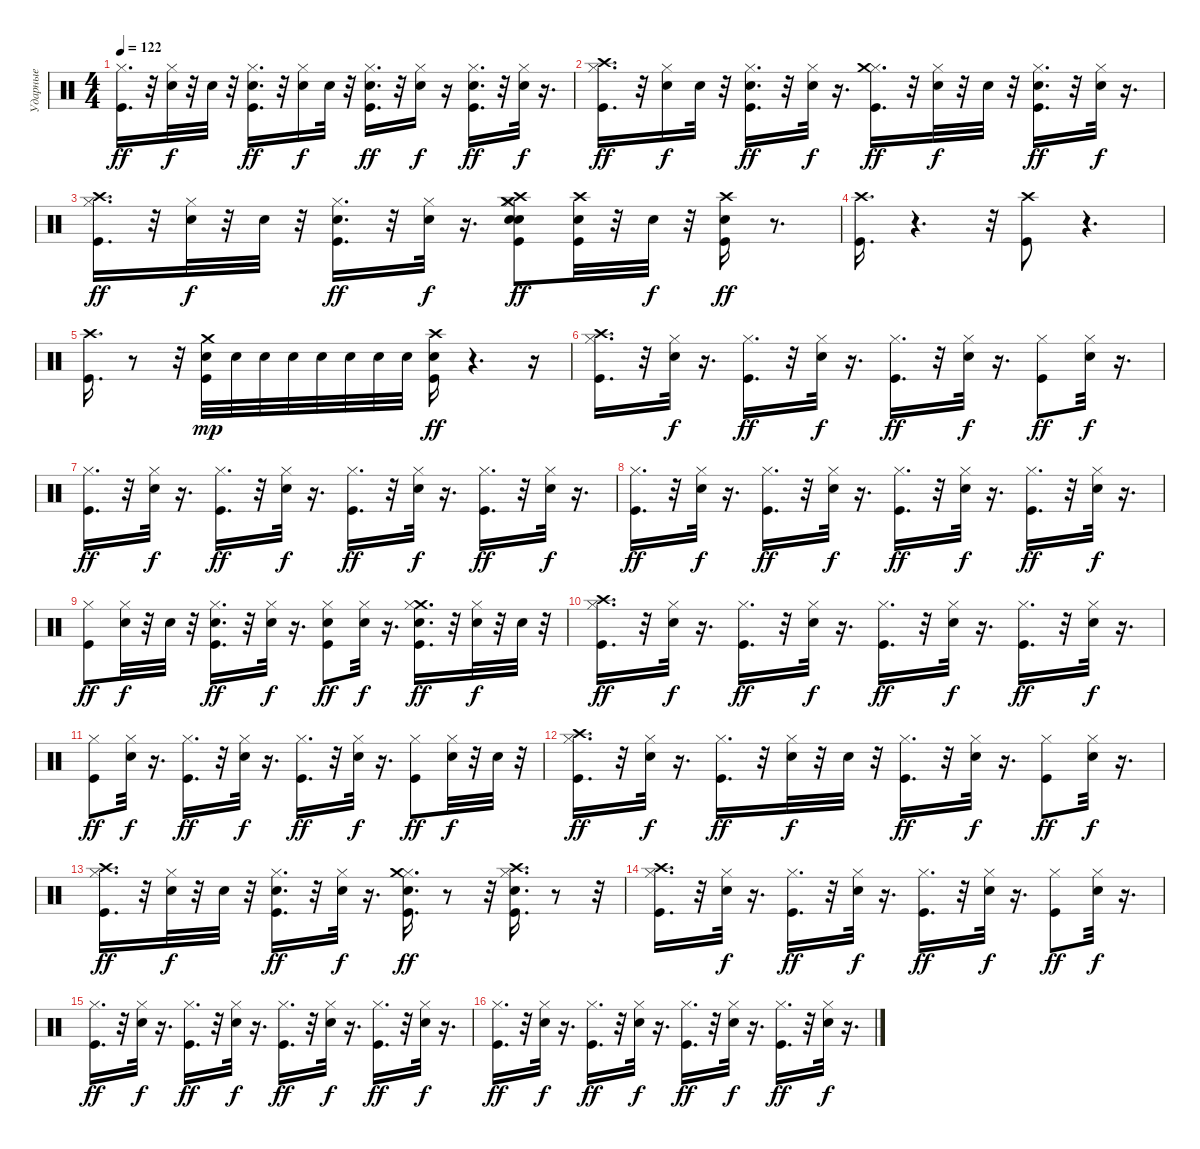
\track ("Ударные" "Ударные") {instrument percussion}
\staff {score}
\articulation defaults
\ts (4 4)
\tempo 122
\clef neutral
\ks c
("Hi-Hat (closed)" "Kick (hit)").16{d dy ff} r.32 ("Electric Snare (hit)" "Hi-Hat (closed)").32{dy f} r.32 "Electric Snare (hit)".32 r.32 ("Kick (hit)" "Hi-Hat (closed)" "Electric Snare (hit)").16{d dy ff} r.32 ("Hi-Hat (closed)" "Electric Snare (hit)").16{dy f} "Electric Snare (hit)".32 r.32 ("Electric Snare (hit)" "Hi-Hat (closed)" "Kick (hit)").16{d dy ff} r.32 ("Hi-Hat (closed)" "Electric Snare (hit)").16{dy f} r.16 ("Hi-Hat (closed)" "Kick (hit)" "Electric Snare (hit)").16{d dy ff} r.32 ("Hi-Hat (closed)" "Electric Snare (hit)").32{dy f} r.16{d} |
("Hi-Hat (closed)" "Kick (hit)" "Crash high (hit)").16{d dy ff} r.32 ("Electric Snare (hit)" "Hi-Hat (closed)").16{dy f} "Electric Snare (hit)".32 r.32 ("Electric Snare (hit)" "Kick (hit)" "Hi-Hat (closed)").16{d dy ff} r.32 ("Hi-Hat (closed)" "Electric Snare (hit)").32{dy f} r.16{d} ("Kick (hit)" "Hi-Hat (closed)" "Crash medium (hit)").16{d dy ff} r.32 ("Hi-Hat (closed)" "Electric Snare (hit)").32{dy f} r.32 "Electric Snare (hit)".32 r.32 ("Electric Snare (hit)" "Hi-Hat (closed)" "Kick (hit)").16{d dy ff} r.32 ("Hi-Hat (closed)" "Electric Snare (hit)").32{dy f} r.16{d} |
("Crash high (hit)" "Kick (hit)" "Hi-Hat (closed)").16{d dy ff} r.32 ("Electric Snare (hit)" "Hi-Hat (closed)").32{dy f} r.32 "Electric Snare (hit)".32 r.32 ("Electric Snare (hit)" "Kick (hit)" "Hi-Hat (closed)").16{d dy ff} r.32 ("Hi-Hat (closed)" "Electric Snare (hit)").32{dy f} r.16{d} ("Crash medium (hit)" "Kick (hit)" "Hi-Hat (closed)" "Electric Snare (hit)" "Electric Snare (hit)" "Crash high (hit)").8{dy ff} ("Crash high (hit)" "Kick (hit)" "Electric Snare (hit)").32 r.32 "Electric Snare (hit)".32{dy f} r.32 ("Electric Snare (hit)" "Crash high (hit)" "Kick (hit)").16{dy ff} r.8{d} |
("Crash high (hit)" "Kick (hit)").16{d} r.4{d} r.32 ("Kick (hit)" "Crash high (hit)").8 r.4{d} |
("Crash high (hit)" "Kick (hit)").16{d} r.8 r.32 ("Crash medium (hit)" "Kick (hit)" "Electric Snare (hit)").32{dy mp} "Electric Snare (hit)".32 "Electric Snare (hit)".32 "Electric Snare (hit)".32 "Electric Snare (hit)".32 "Electric Snare (hit)".32 "Electric Snare (hit)".32 "Electric Snare (hit)".32 ("Electric Snare (hit)" "Crash high (hit)" "Kick (hit)").16{dy ff} r.4{d} r.16 |
("Kick (hit)" "Hi-Hat (closed)" "Crash high (hit)").16{d} r.32 ("Electric Snare (hit)" "Hi-Hat (closed)").32{dy f} r.16{d} ("Hi-Hat (closed)" "Kick (hit)").16{d dy ff} r.32 ("Electric Snare (hit)" "Hi-Hat (closed)").32{dy f} r.16{d} ("Hi-Hat (closed)" "Kick (hit)").16{d dy ff} r.32 ("Electric Snare (hit)" "Hi-Hat (closed)").32{dy f} r.16{d} ("Hi-Hat (closed)" "Kick (hit)").8{dy ff} ("Hi-Hat (closed)" "Electric Snare (hit)").32{dy f} r.16{d} |
("Kick (hit)" "Hi-Hat (closed)").16{d dy ff} r.32 ("Hi-Hat (closed)" "Electric Snare (hit)").32{dy f} r.16{d} ("Kick (hit)" "Hi-Hat (closed)").16{d dy ff} r.32 ("Hi-Hat (closed)" "Electric Snare (hit)").32{dy f} r.16{d} ("Hi-Hat (closed)" "Kick (hit)").16{d dy ff} r.32 ("Hi-Hat (closed)" "Electric Snare (hit)").32{dy f} r.16{d} ("Hi-Hat (closed)" "Kick (hit)").16{d dy ff} r.32 ("Hi-Hat (closed)" "Electric Snare (hit)").32{dy f} r.16{d} |
("Hi-Hat (closed)" "Kick (hit)").16{d dy ff} r.32 ("Hi-Hat (closed)" "Electric Snare (hit)").32{dy f} r.16{d} ("Hi-Hat (closed)" "Kick (hit)").16{d dy ff} r.32 ("Hi-Hat (closed)" "Electric Snare (hit)").32{dy f} r.16{d} ("Kick (hit)" "Hi-Hat (closed)").16{d dy ff} r.32 ("Hi-Hat (closed)" "Electric Snare (hit)").32{dy f} r.16{d} ("Hi-Hat (closed)" "Kick (hit)").16{d dy ff} r.32 ("Hi-Hat (closed)" "Electric Snare (hit)").32{dy f} r.16{d} |
("Kick (hit)" "Hi-Hat (closed)").8{dy ff} ("Electric Snare (hit)" "Hi-Hat (closed)").32{dy f} r.32 "Electric Snare (hit)".32 r.32 ("Electric Snare (hit)" "Kick (hit)" "Hi-Hat (closed)").16{d dy ff} r.32 ("Electric Snare (hit)" "Hi-Hat (closed)").32{dy f} r.16{d} ("Electric Snare (hit)" "Kick (hit)" "Hi-Hat (closed)").8{dy ff} ("Electric Snare (hit)" "Hi-Hat (closed)").32{dy f} r.16{d} ("Electric Snare (hit)" "Crash medium (hit)" "Kick (hit)" "Hi-Hat (closed)").16{d dy ff} r.32 ("Hi-Hat (closed)" "Electric Snare (hit)").32{dy f} r.32 "Electric Snare (hit)".32 r.32 |
("Crash high (hit)" "Kick (hit)" "Hi-Hat (closed)").16{d dy ff} r.32 ("Hi-Hat (closed)" "Electric Snare (hit)").32{dy f} r.16{d} ("Hi-Hat (closed)" "Kick (hit)").16{d dy ff} r.32 ("Electric Snare (hit)" "Hi-Hat (closed)").32{dy f} r.16{d} ("Kick (hit)" "Hi-Hat (closed)").16{d dy ff} r.32 ("Electric Snare (hit)" "Hi-Hat (closed)").32{dy f} r.16{d} ("Hi-Hat (closed)" "Kick (hit)").16{d dy ff} r.32 ("Hi-Hat (closed)" "Electric Snare (hit)").32{dy f} r.16{d} |
("Hi-Hat (closed)" "Kick (hit)").8{dy ff} ("Hi-Hat (closed)" "Electric Snare (hit)").32{dy f} r.16{d} ("Hi-Hat (closed)" "Kick (hit)").16{d dy ff} r.32 ("Hi-Hat (closed)" "Electric Snare (hit)").32{dy f} r.16{d} ("Kick (hit)" "Hi-Hat (closed)").16{d dy ff} r.32 ("Hi-Hat (closed)" "Electric Snare (hit)").32{dy f} r.16{d} ("Hi-Hat (closed)" "Kick (hit)").8{dy ff} ("Electric Snare (hit)" "Hi-Hat (closed)").32{dy f} r.32 "Electric Snare (hit)".32 r.32 |
("Crash high (hit)" "Kick (hit)" "Hi-Hat (closed)").16{d dy ff} r.32 ("Hi-Hat (closed)" "Electric Snare (hit)").32{dy f} r.16{d} ("Kick (hit)" "Hi-Hat (closed)").16{d dy ff} r.32 ("Hi-Hat (closed)" "Electric Snare (hit)").32{dy f} r.32 "Electric Snare (hit)".32 r.32 ("Kick (hit)" "Hi-Hat (closed)").16{d dy ff} r.32 ("Hi-Hat (closed)" "Electric Snare (hit)").32{dy f} r.16{d} ("Kick (hit)" "Hi-Hat (closed)").8{dy ff} ("Electric Snare (hit)" "Hi-Hat (closed)").32{dy f} r.16{d} |
("Kick (hit)" "Hi-Hat (closed)" "Crash high (hit)").16{d dy ff} r.32 ("Electric Snare (hit)" "Hi-Hat (closed)").32{dy f} r.32 "Electric Snare (hit)".32 r.32 ("Electric Snare (hit)" "Kick (hit)" "Hi-Hat (closed)").16{d dy ff} r.32 ("Electric Snare (hit)" "Hi-Hat (closed)").32{dy f} r.16{d} ("Electric Snare (hit)" "Kick (hit)" "Hi-Hat (closed)" "Crash medium (hit)").16{d dy ff} r.8 r.32 ("Hi-Hat (closed)" "Kick (hit)" "Crash high (hit)" "Electric Snare (hit)").16{d} r.8 r.32 |
("Kick (hit)" "Hi-Hat (closed)" "Crash high (hit)").16{d} r.32 ("Electric Snare (hit)" "Hi-Hat (closed)").32{dy f} r.16{d} ("Hi-Hat (closed)" "Kick (hit)").16{d dy ff} r.32 ("Electric Snare (hit)" "Hi-Hat (closed)").32{dy f} r.16{d} ("Hi-Hat (closed)" "Kick (hit)").16{d dy ff} r.32 ("Electric Snare (hit)" "Hi-Hat (closed)").32{dy f} r.16{d} ("Hi-Hat (closed)" "Kick (hit)").8{dy ff} ("Hi-Hat (closed)" "Electric Snare (hit)").32{dy f} r.16{d} |
("Kick (hit)" "Hi-Hat (closed)").16{d dy ff} r.32 ("Hi-Hat (closed)" "Electric Snare (hit)").32{dy f} r.16{d} ("Kick (hit)" "Hi-Hat (closed)").16{d dy ff} r.32 ("Hi-Hat (closed)" "Electric Snare (hit)").32{dy f} r.16{d} ("Hi-Hat (closed)" "Kick (hit)").16{d dy ff} r.32 ("Hi-Hat (closed)" "Electric Snare (hit)").32{dy f} r.16{d} ("Hi-Hat (closed)" "Kick (hit)").16{d dy ff} r.32 ("Hi-Hat (closed)" "Electric Snare (hit)").32{dy f} r.16{d} |
("Hi-Hat (closed)" "Kick (hit)").16{d dy ff} r.32 ("Hi-Hat (closed)" "Electric Snare (hit)").32{dy f} r.16{d} ("Hi-Hat (closed)" "Kick (hit)").16{d dy ff} r.32 ("Hi-Hat (closed)" "Electric Snare (hit)").32{dy f} r.16{d} ("Kick (hit)" "Hi-Hat (closed)").16{d dy ff} r.32 ("Hi-Hat (closed)" "Electric Snare (hit)").32{dy f} r.16{d} ("Hi-Hat (closed)" "Kick (hit)").16{d dy ff} r.32 ("Hi-Hat (closed)" "Electric Snare (hit)").32{dy f} r.16{d}
